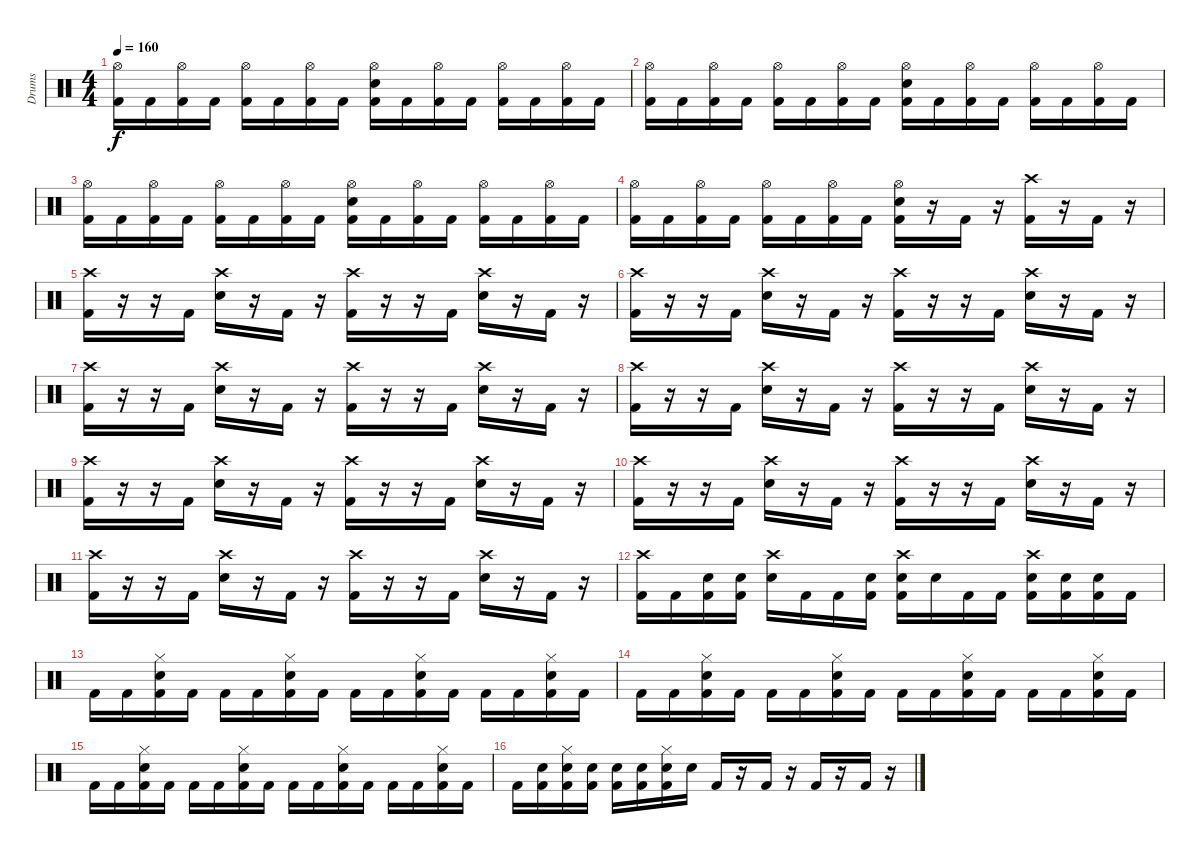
\track ("Drums" "Drums") {instrument percussion}
\staff {score}
\articulation defaults
\ts (4 4)
\tempo 160
\clef neutral
\ks c
("Hi-Hat (open)" "Kick (hit) 2").16{dy f} "Kick (hit) 2".16 ("Hi-Hat (open)" "Kick (hit) 2").16 "Kick (hit) 2".16 ("Hi-Hat (open)" "Kick (hit) 2").16 "Kick (hit) 2".16 ("Hi-Hat (open)" "Kick (hit) 2").16 "Kick (hit) 2".16 ("Hi-Hat (open)" "Electric Snare (hit)" "Kick (hit) 2").16 "Kick (hit) 2".16 ("Hi-Hat (open)" "Kick (hit) 2").16 "Kick (hit) 2".16 ("Hi-Hat (open)" "Kick (hit) 2").16 "Kick (hit) 2".16 ("Hi-Hat (open)" "Kick (hit) 2").16 "Kick (hit) 2".16 |
("Hi-Hat (open)" "Kick (hit) 2").16 "Kick (hit) 2".16 ("Hi-Hat (open)" "Kick (hit) 2").16 "Kick (hit) 2".16 ("Hi-Hat (open)" "Kick (hit) 2").16 "Kick (hit) 2".16 ("Hi-Hat (open)" "Kick (hit) 2").16 "Kick (hit) 2".16 ("Hi-Hat (open)" "Electric Snare (hit)" "Kick (hit) 2").16 "Kick (hit) 2".16 ("Hi-Hat (open)" "Kick (hit) 2").16 "Kick (hit) 2".16 ("Hi-Hat (open)" "Kick (hit) 2").16 "Kick (hit) 2".16 ("Hi-Hat (open)" "Kick (hit) 2").16 "Kick (hit) 2".16 |
("Hi-Hat (open)" "Kick (hit) 2").16 "Kick (hit) 2".16 ("Hi-Hat (open)" "Kick (hit) 2").16 "Kick (hit) 2".16 ("Hi-Hat (open)" "Kick (hit) 2").16 "Kick (hit) 2".16 ("Hi-Hat (open)" "Kick (hit) 2").16 "Kick (hit) 2".16 ("Hi-Hat (open)" "Electric Snare (hit)" "Kick (hit) 2").16 "Kick (hit) 2".16 ("Hi-Hat (open)" "Kick (hit) 2").16 "Kick (hit) 2".16 ("Hi-Hat (open)" "Kick (hit) 2").16 "Kick (hit) 2".16 ("Hi-Hat (open)" "Kick (hit) 2").16 "Kick (hit) 2".16 |
("Hi-Hat (open)" "Kick (hit) 2").16 "Kick (hit) 2".16 ("Hi-Hat (open)" "Kick (hit) 2").16 "Kick (hit) 2".16 ("Hi-Hat (open)" "Kick (hit) 2").16 "Kick (hit) 2".16 ("Hi-Hat (open)" "Kick (hit) 2").16 "Kick (hit) 2".16 ("Hi-Hat (open)" "Electric Snare (hit)" "Kick (hit) 2").16 r.16 "Kick (hit) 2".16 r.16 ("Crash high (hit)" "Kick (hit) 2").16 r.16 "Kick (hit) 2".16 r.16 |
("Crash high (hit)" "Kick (hit) 2").16 r.16 r.16 "Kick (hit) 2".16 ("Crash high (hit)" "Electric Snare (hit)").16 r.16 "Kick (hit) 2".16 r.16 ("Crash high (hit)" "Kick (hit) 2").16 r.16 r.16 "Kick (hit) 2".16 ("Crash high (hit)" "Electric Snare (hit)").16 r.16 "Kick (hit) 2".16 r.16 |
("Crash high (hit)" "Kick (hit) 2").16 r.16 r.16 "Kick (hit) 2".16 ("Crash high (hit)" "Electric Snare (hit)").16 r.16 "Kick (hit) 2".16 r.16 ("Crash high (hit)" "Kick (hit) 2").16 r.16 r.16 "Kick (hit) 2".16 ("Crash high (hit)" "Electric Snare (hit)").16 r.16 "Kick (hit) 2".16 r.16 |
("Crash high (hit)" "Kick (hit) 2").16 r.16 r.16 "Kick (hit) 2".16 ("Crash high (hit)" "Electric Snare (hit)").16 r.16 "Kick (hit) 2".16 r.16 ("Crash high (hit)" "Kick (hit) 2").16 r.16 r.16 "Kick (hit) 2".16 ("Crash high (hit)" "Electric Snare (hit)").16 r.16 "Kick (hit) 2".16 r.16 |
("Crash high (hit)" "Kick (hit) 2").16 r.16 r.16 "Kick (hit) 2".16 ("Crash high (hit)" "Electric Snare (hit)").16 r.16 "Kick (hit) 2".16 r.16 ("Crash high (hit)" "Kick (hit) 2").16 r.16 r.16 "Kick (hit) 2".16 ("Crash high (hit)" "Electric Snare (hit)").16 r.16 "Kick (hit) 2".16 r.16 |
("Crash high (hit)" "Kick (hit) 2").16 r.16 r.16 "Kick (hit) 2".16 ("Crash high (hit)" "Electric Snare (hit)").16 r.16 "Kick (hit) 2".16 r.16 ("Crash high (hit)" "Kick (hit) 2").16 r.16 r.16 "Kick (hit) 2".16 ("Crash high (hit)" "Electric Snare (hit)").16 r.16 "Kick (hit) 2".16 r.16 |
("Crash high (hit)" "Kick (hit) 2").16 r.16 r.16 "Kick (hit) 2".16 ("Crash high (hit)" "Electric Snare (hit)").16 r.16 "Kick (hit) 2".16 r.16 ("Crash high (hit)" "Kick (hit) 2").16 r.16 r.16 "Kick (hit) 2".16 ("Crash high (hit)" "Electric Snare (hit)").16 r.16 "Kick (hit) 2".16 r.16 |
("Crash high (hit)" "Kick (hit) 2").16 r.16 r.16 "Kick (hit) 2".16 ("Crash high (hit)" "Electric Snare (hit)").16 r.16 "Kick (hit) 2".16 r.16 ("Crash high (hit)" "Kick (hit) 2").16 r.16 r.16 "Kick (hit) 2".16 ("Crash high (hit)" "Electric Snare (hit)").16 r.16 "Kick (hit) 2".16 r.16 |
("Crash high (hit)" "Kick (hit) 2").16 "Kick (hit) 2".16 ("Electric Snare (hit)" "Kick (hit) 2").16 ("Electric Snare (hit)" "Kick (hit) 2").16 ("Crash high (hit)" "Electric Snare (hit)").16 "Kick (hit) 2".16 "Kick (hit) 2".16 ("Electric Snare (hit)" "Kick (hit) 2").16 ("Crash high (hit)" "Electric Snare (hit)" "Kick (hit) 2").16 "Electric Snare (hit)".16 "Kick (hit) 2".16 "Kick (hit) 2".16 ("Crash high (hit)" "Electric Snare (hit)" "Kick (hit) 2").16 ("Electric Snare (hit)" "Kick (hit) 2").16 ("Electric Snare (hit)" "Kick (hit) 2").16 "Kick (hit) 2".16 |
"Kick (hit) 2".16 "Kick (hit) 2".16 ("Hi-Hat (closed)" "Electric Snare (hit)" "Kick (hit) 2").16 "Kick (hit) 2".16 "Kick (hit) 2".16 "Kick (hit) 2".16 ("Hi-Hat (closed)" "Electric Snare (hit)" "Kick (hit) 2").16 "Kick (hit) 2".16 "Kick (hit) 2".16 "Kick (hit) 2".16 ("Hi-Hat (closed)" "Electric Snare (hit)" "Kick (hit) 2").16 "Kick (hit) 2".16 "Kick (hit) 2".16 "Kick (hit) 2".16 ("Hi-Hat (closed)" "Electric Snare (hit)" "Kick (hit) 2").16 "Kick (hit) 2".16 |
"Kick (hit) 2".16 "Kick (hit) 2".16 ("Hi-Hat (closed)" "Electric Snare (hit)" "Kick (hit) 2").16 "Kick (hit) 2".16 "Kick (hit) 2".16 "Kick (hit) 2".16 ("Hi-Hat (closed)" "Electric Snare (hit)" "Kick (hit) 2").16 "Kick (hit) 2".16 "Kick (hit) 2".16 "Kick (hit) 2".16 ("Hi-Hat (closed)" "Electric Snare (hit)" "Kick (hit) 2").16 "Kick (hit) 2".16 "Kick (hit) 2".16 "Kick (hit) 2".16 ("Hi-Hat (closed)" "Electric Snare (hit)" "Kick (hit) 2").16 "Kick (hit) 2".16 |
"Kick (hit) 2".16 "Kick (hit) 2".16 ("Hi-Hat (closed)" "Electric Snare (hit)" "Kick (hit) 2").16 "Kick (hit) 2".16 "Kick (hit) 2".16 "Kick (hit) 2".16 ("Hi-Hat (closed)" "Electric Snare (hit)" "Kick (hit) 2").16 "Kick (hit) 2".16 "Kick (hit) 2".16 "Kick (hit) 2".16 ("Hi-Hat (closed)" "Electric Snare (hit)" "Kick (hit) 2").16 "Kick (hit) 2".16 "Kick (hit) 2".16 "Kick (hit) 2".16 ("Hi-Hat (closed)" "Electric Snare (hit)" "Kick (hit) 2").16 "Kick (hit) 2".16 |
"Kick (hit) 2".16 ("Electric Snare (hit)" "Kick (hit) 2").16 ("Hi-Hat (closed)" "Electric Snare (hit)" "Kick (hit) 2").16 ("Electric Snare (hit)" "Kick (hit) 2").16 ("Electric Snare (hit)" "Kick (hit) 2").16 ("Electric Snare (hit)" "Kick (hit) 2").16 ("Hi-Hat (closed)" "Electric Snare (hit)" "Kick (hit) 2").16 "Electric Snare (hit)".16 "Kick (hit) 2".16 r.16 "Kick (hit) 2".16 r.16 "Kick (hit) 2".16 r.16 "Kick (hit) 2".16 r.16
